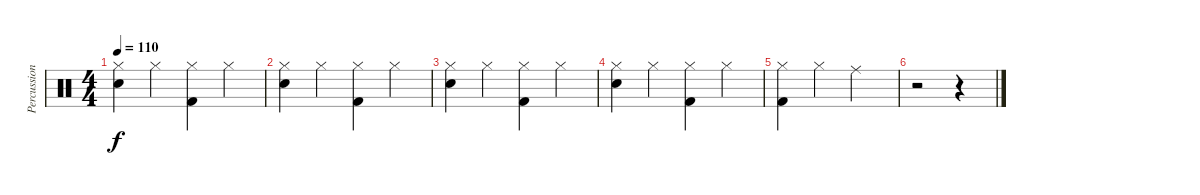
\track ("Percussion" "Percussion") {instrument percussion}
\staff {score}
\articulation defaults
\ts (4 4)
\tempo 110
\clef neutral
\ks c
("Hi-Hat (closed)" "Snare (hit) 2").4{dy f} "Hi-Hat (closed)".4 ("Hi-Hat (closed)" "Kick (hit) 2").4 "Hi-Hat (closed)".4 |
("Hi-Hat (closed)" "Snare (hit) 2").4 "Hi-Hat (closed)".4 ("Hi-Hat (closed)" "Kick (hit) 2").4 "Hi-Hat (closed)".4 |
("Hi-Hat (closed)" "Snare (hit) 2").4 "Hi-Hat (closed)".4 ("Hi-Hat (closed)" "Kick (hit) 2").4 "Hi-Hat (closed)".4 |
("Hi-Hat (closed)" "Snare (hit) 2").4 "Hi-Hat (closed)".4 ("Hi-Hat (closed)" "Kick (hit) 2").4 "Hi-Hat (closed)".4 |
("Hi-Hat (closed)" "Kick (hit) 2").4 "Hi-Hat (closed)".4 "Ride (middle)".2 |
r.2 r.4
